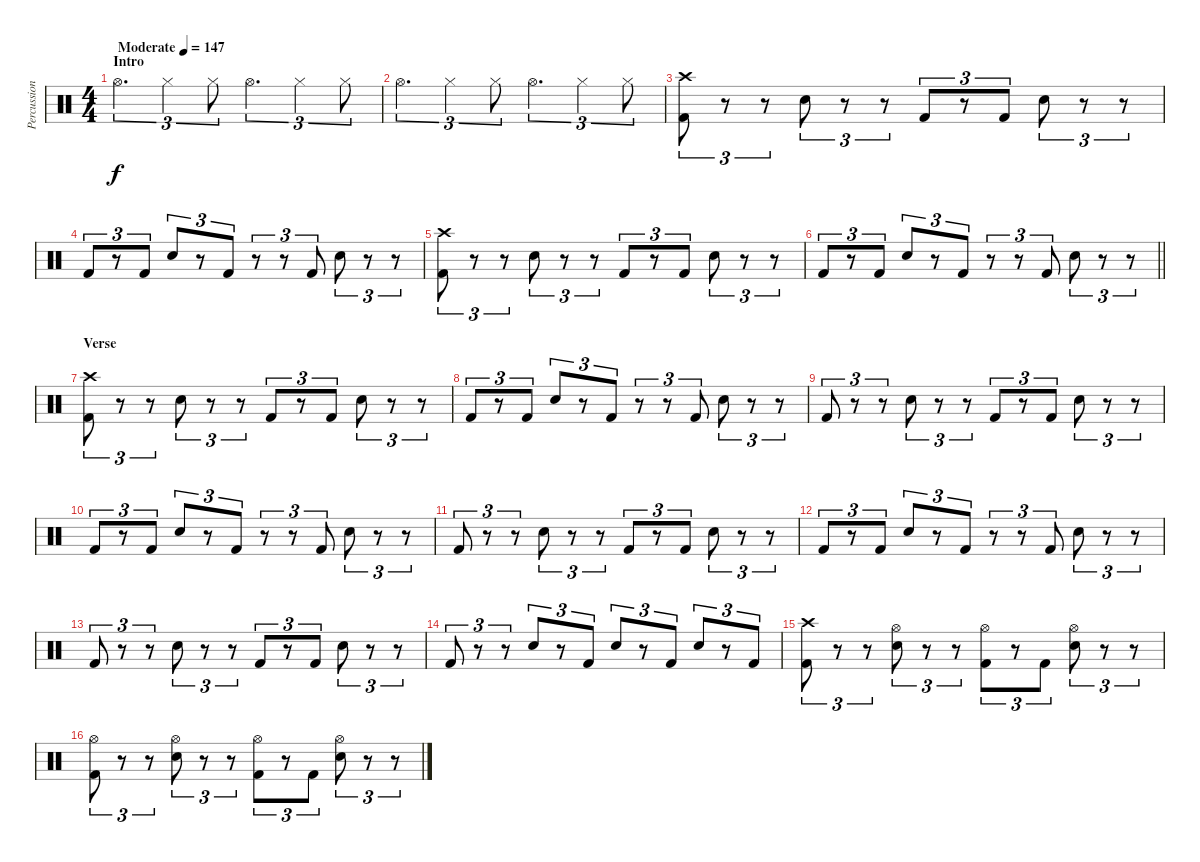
\track ("Percussion" "Percussion") {instrument percussion}
\staff {score}
\articulation defaults
\ts (4 4)
\section ("" "Intro")
\tempo (147 "Moderate")
\clef neutral
\ks c "Hi-Hat (open)".4{d tu (3 2) dy f} "Hi-Hat (closed)".4{tu (3 2)} "Hi-Hat (closed)".8{tu (3 2)} "Hi-Hat (open)".4{d tu (3 2)} "Hi-Hat (closed)".4{tu (3 2)} "Hi-Hat (closed)".8{tu (3 2)}
|
"Hi-Hat (open)".4{d tu (3 2)} "Hi-Hat (closed)".4{tu (3 2)} "Hi-Hat (closed)".8{tu (3 2)} "Hi-Hat (open)".4{d tu (3 2)} "Hi-Hat (closed)".4{tu (3 2)} "Hi-Hat (closed)".8{tu (3 2)} |
("Crash high (hit)" "Kick (hit) 2").8{tu (3 2)} r.8{tu (3 2)} r.8{tu (3 2)} "Electric Snare (hit)".8{tu (3 2)} r.8{tu (3 2)} r.8{tu (3 2)} "Kick (hit) 2".8{tu (3 2)} r.8{tu (3 2)} "Kick (hit) 2".8{tu (3 2)} "Electric Snare (hit)".8{tu (3 2)} r.8{tu (3 2)} r.8{tu (3 2)} |
"Kick (hit) 2".8{tu (3 2)} r.8{tu (3 2)} "Kick (hit) 2".8{tu (3 2)} "Electric Snare (hit)".8{tu (3 2)} r.8{tu (3 2)} "Kick (hit) 2".8{tu (3 2)} r.8{tu (3 2)} r.8{tu (3 2)} "Kick (hit) 2".8{tu (3 2)} "Electric Snare (hit)".8{tu (3 2)} r.8{tu (3 2)} r.8{tu (3 2)} |
("Crash high (hit)" "Kick (hit) 2").8{tu (3 2)} r.8{tu (3 2)} r.8{tu (3 2)} "Electric Snare (hit)".8{tu (3 2)} r.8{tu (3 2)} r.8{tu (3 2)} "Kick (hit) 2".8{tu (3 2)} r.8{tu (3 2)} "Kick (hit) 2".8{tu (3 2)} "Electric Snare (hit)".8{tu (3 2)} r.8{tu (3 2)} r.8{tu (3 2)} |
\barLineRight lightlight "Kick (hit) 2".8{tu (3 2)}
r.8{tu (3 2)} "Kick (hit) 2".8{tu (3 2)} "Electric Snare (hit)".8{tu (3 2)} r.8{tu (3 2)} "Kick (hit) 2".8{tu (3 2)} r.8{tu (3 2)} r.8{tu (3 2)} "Kick (hit) 2".8{tu (3 2)} "Electric Snare (hit)".8{tu (3 2)} r.8{tu (3 2)} r.8{tu (3 2)} |
\section ("" "Verse")
("Crash high (hit)" "Kick (hit) 2").8{tu (3 2)} r.8{tu (3 2)} r.8{tu (3 2)} "Electric Snare (hit)".8{tu (3 2)} r.8{tu (3 2)} r.8{tu (3 2)} "Kick (hit) 2".8{tu (3 2)} r.8{tu (3 2)} "Kick (hit) 2".8{tu (3 2)} "Electric Snare (hit)".8{tu (3 2)} r.8{tu (3 2)} r.8{tu (3 2)} |
"Kick (hit) 2".8{tu (3 2)} r.8{tu (3 2)} "Kick (hit) 2".8{tu (3 2)} "Electric Snare (hit)".8{tu (3 2)} r.8{tu (3 2)} "Kick (hit) 2".8{tu (3 2)} r.8{tu (3 2)} r.8{tu (3 2)} "Kick (hit) 2".8{tu (3 2)} "Electric Snare (hit)".8{tu (3 2)} r.8{tu (3 2)} r.8{tu (3 2)} |
"Kick (hit) 2".8{tu (3 2)} r.8{tu (3 2)} r.8{tu (3 2)} "Electric Snare (hit)".8{tu (3 2)} r.8{tu (3 2)} r.8{tu (3 2)} "Kick (hit) 2".8{tu (3 2)} r.8{tu (3 2)} "Kick (hit) 2".8{tu (3 2)} "Electric Snare (hit)".8{tu (3 2)} r.8{tu (3 2)} r.8{tu (3 2)} |
"Kick (hit) 2".8{tu (3 2)} r.8{tu (3 2)} "Kick (hit) 2".8{tu (3 2)} "Electric Snare (hit)".8{tu (3 2)} r.8{tu (3 2)} "Kick (hit) 2".8{tu (3 2)} r.8{tu (3 2)} r.8{tu (3 2)} "Kick (hit) 2".8{tu (3 2)} "Electric Snare (hit)".8{tu (3 2)} r.8{tu (3 2)} r.8{tu (3 2)} |
"Kick (hit) 2".8{tu (3 2)} r.8{tu (3 2)} r.8{tu (3 2)} "Electric Snare (hit)".8{tu (3 2)} r.8{tu (3 2)} r.8{tu (3 2)} "Kick (hit) 2".8{tu (3 2)} r.8{tu (3 2)} "Kick (hit) 2".8{tu (3 2)} "Electric Snare (hit)".8{tu (3 2)} r.8{tu (3 2)} r.8{tu (3 2)} |
"Kick (hit) 2".8{tu (3 2)} r.8{tu (3 2)} "Kick (hit) 2".8{tu (3 2)} "Electric Snare (hit)".8{tu (3 2)} r.8{tu (3 2)} "Kick (hit) 2".8{tu (3 2)} r.8{tu (3 2)} r.8{tu (3 2)} "Kick (hit) 2".8{tu (3 2)} "Electric Snare (hit)".8{tu (3 2)} r.8{tu (3 2)} r.8{tu (3 2)} |
"Kick (hit) 2".8{tu (3 2)} r.8{tu (3 2)} r.8{tu (3 2)} "Electric Snare (hit)".8{tu (3 2)} r.8{tu (3 2)} r.8{tu (3 2)} "Kick (hit) 2".8{tu (3 2)} r.8{tu (3 2)} "Kick (hit) 2".8{tu (3 2)} "Electric Snare (hit)".8{tu (3 2)} r.8{tu (3 2)} r.8{tu (3 2)} |
"Kick (hit) 2".8{tu (3 2)} r.8{tu (3 2)} r.8{tu (3 2)} "Electric Snare (hit)".8{tu (3 2)} r.8{tu (3 2)} "Kick (hit) 2".8{tu (3 2)} "Electric Snare (hit)".8{tu (3 2)} r.8{tu (3 2)} "Kick (hit) 2".8{tu (3 2)} "Electric Snare (hit)".8{tu (3 2)} r.8{tu (3 2)} "Kick (hit) 2".8{tu (3 2)} |
("Crash high (hit)" "Kick (hit) 2").8{tu (3 2)} r.8{tu (3 2)} r.8{tu (3 2)} ("Hi-Hat (open)" "Electric Snare (hit)").8{tu (3 2)} r.8{tu (3 2)} r.8{tu (3 2)} ("Hi-Hat (open)" "Kick (hit) 2").8{tu (3 2)} r.8{tu (3 2)} "Kick (hit) 2".8{tu (3 2)} ("Hi-Hat (open)" "Electric Snare (hit)").8{tu (3 2)} r.8{tu (3 2)} r.8{tu (3 2)} |
("Hi-Hat (open)" "Kick (hit) 2").8{tu (3 2)} r.8{tu (3 2)} r.8{tu (3 2)} ("Hi-Hat (open)" "Electric Snare (hit)").8{tu (3 2)} r.8{tu (3 2)} r.8{tu (3 2)} ("Hi-Hat (open)" "Kick (hit) 2").8{tu (3 2)} r.8{tu (3 2)} "Kick (hit) 2".8{tu (3 2)} ("Hi-Hat (open)" "Electric Snare (hit)").8{tu (3 2)} r.8{tu (3 2)} r.8{tu (3 2)}
